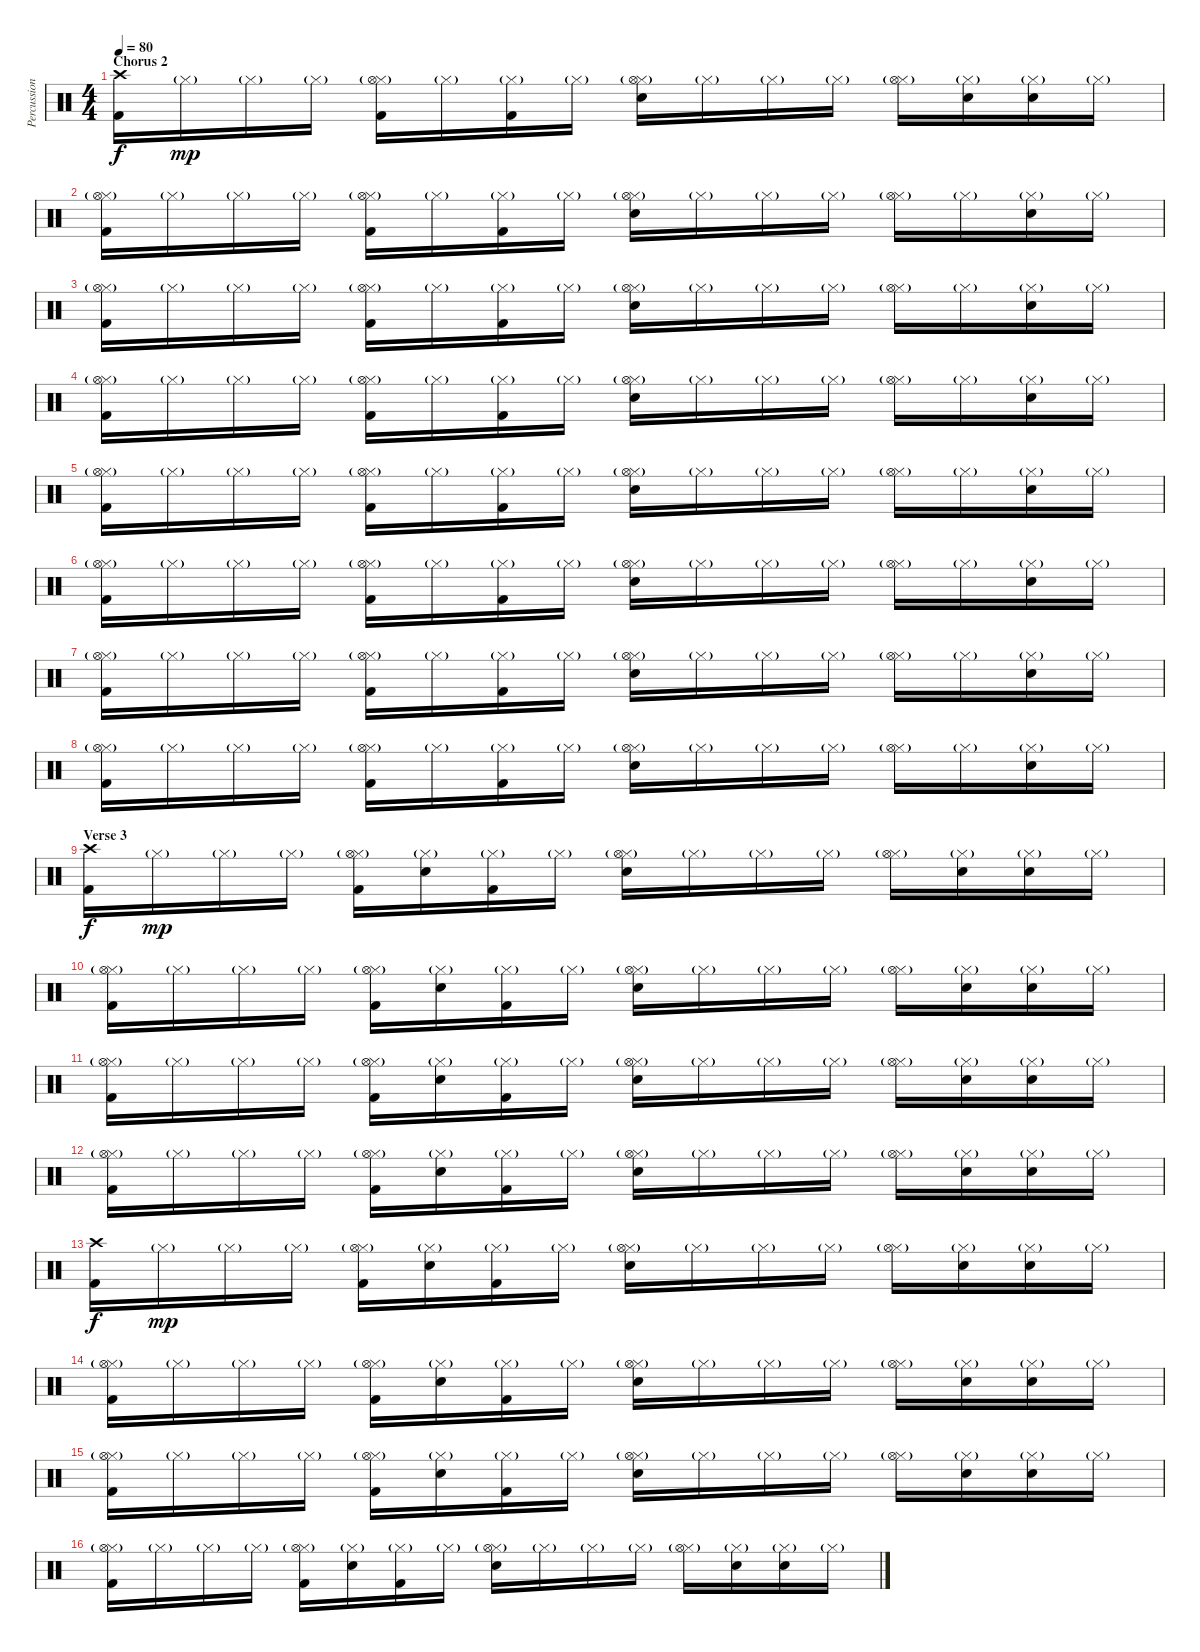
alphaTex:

\track ("Percussions" "Percussion") {instrument percussion}
\staff {score}
\articulation defaults
\ts (4 4)
\section ("" "Chorus 2")
\tempo 80
\clef neutral
\ks c
("Crash high (hit)" "Kick (hit) 2").16{dy f} "Hi-Hat (closed)"{g}.16{dy mp} "Hi-Hat (closed)"{g}.16 "Hi-Hat (closed)"{g}.16 ("Hi-Hat (closed)"{g} "Hi-Hat (open)" "Kick (hit) 2").16 "Hi-Hat (closed)"{g}.16 ("Hi-Hat (closed)"{g} "Kick (hit) 2").16 "Hi-Hat (closed)"{g}.16 ("Hi-Hat (closed)"{g} "Hi-Hat (open)" "Snare (hit) 2").16 "Hi-Hat (closed)"{g}.16 "Hi-Hat (closed)"{g}.16 "Hi-Hat (closed)"{g}.16 ("Hi-Hat (closed)"{g} "Hi-Hat (open)").16 ("Hi-Hat (closed)"{g} "Hand Clap (hit)").16 ("Hi-Hat (closed)"{g} "Snare (hit) 2").16 "Hi-Hat (closed)"{g}.16 |
("Hi-Hat (closed)"{g} "Hi-Hat (open)" "Kick (hit) 2").16 "Hi-Hat (closed)"{g}.16 "Hi-Hat (closed)"{g}.16 "Hi-Hat (closed)"{g}.16 ("Hi-Hat (closed)"{g} "Hi-Hat (open)" "Kick (hit) 2").16 "Hi-Hat (closed)"{g}.16 ("Hi-Hat (closed)"{g} "Kick (hit) 2").16 "Hi-Hat (closed)"{g}.16 ("Hi-Hat (closed)"{g} "Hi-Hat (open)" "Snare (hit) 2").16 "Hi-Hat (closed)"{g}.16 "Hi-Hat (closed)"{g}.16 "Hi-Hat (closed)"{g}.16 ("Hi-Hat (closed)"{g} "Hi-Hat (open)").16 "Hi-Hat (closed)"{g}.16 ("Hi-Hat (closed)"{g} "Snare (hit) 2").16 "Hi-Hat (closed)"{g}.16 |
("Hi-Hat (closed)"{g} "Hi-Hat (open)" "Kick (hit) 2").16 "Hi-Hat (closed)"{g}.16 "Hi-Hat (closed)"{g}.16 "Hi-Hat (closed)"{g}.16 ("Hi-Hat (closed)"{g} "Hi-Hat (open)" "Kick (hit) 2").16 "Hi-Hat (closed)"{g}.16 ("Hi-Hat (closed)"{g} "Kick (hit) 2").16 "Hi-Hat (closed)"{g}.16 ("Hi-Hat (closed)"{g} "Hi-Hat (open)" "Snare (hit) 2").16 "Hi-Hat (closed)"{g}.16 "Hi-Hat (closed)"{g}.16 "Hi-Hat (closed)"{g}.16 ("Hi-Hat (closed)"{g} "Hi-Hat (open)").16 "Hi-Hat (closed)"{g}.16 ("Hi-Hat (closed)"{g} "Snare (hit) 2").16 "Hi-Hat (closed)"{g}.16 |
("Hi-Hat (closed)"{g} "Hi-Hat (open)" "Kick (hit) 2").16 "Hi-Hat (closed)"{g}.16 "Hi-Hat (closed)"{g}.16 "Hi-Hat (closed)"{g}.16 ("Hi-Hat (closed)"{g} "Hi-Hat (open)" "Kick (hit) 2").16 "Hi-Hat (closed)"{g}.16 ("Hi-Hat (closed)"{g} "Kick (hit) 2").16 "Hi-Hat (closed)"{g}.16 ("Hi-Hat (closed)"{g} "Hi-Hat (open)" "Snare (hit) 2").16 "Hi-Hat (closed)"{g}.16 "Hi-Hat (closed)"{g}.16 "Hi-Hat (closed)"{g}.16 ("Hi-Hat (closed)"{g} "Hi-Hat (open)").16 "Hi-Hat (closed)"{g}.16 ("Hi-Hat (closed)"{g} "Snare (hit) 2").16 "Hi-Hat (closed)"{g}.16 |
("Hi-Hat (closed)"{g} "Hi-Hat (open)" "Kick (hit) 2").16 "Hi-Hat (closed)"{g}.16 "Hi-Hat (closed)"{g}.16 "Hi-Hat (closed)"{g}.16 ("Hi-Hat (closed)"{g} "Hi-Hat (open)" "Kick (hit) 2").16 "Hi-Hat (closed)"{g}.16 ("Hi-Hat (closed)"{g} "Kick (hit) 2").16 "Hi-Hat (closed)"{g}.16 ("Hi-Hat (closed)"{g} "Hi-Hat (open)" "Snare (hit) 2").16 "Hi-Hat (closed)"{g}.16 "Hi-Hat (closed)"{g}.16 "Hi-Hat (closed)"{g}.16 ("Hi-Hat (closed)"{g} "Hi-Hat (open)").16 "Hi-Hat (closed)"{g}.16 ("Hi-Hat (closed)"{g} "Snare (hit) 2").16 "Hi-Hat (closed)"{g}.16 |
("Hi-Hat (closed)"{g} "Hi-Hat (open)" "Kick (hit) 2").16 "Hi-Hat (closed)"{g}.16 "Hi-Hat (closed)"{g}.16 "Hi-Hat (closed)"{g}.16 ("Hi-Hat (closed)"{g} "Hi-Hat (open)" "Kick (hit) 2").16 "Hi-Hat (closed)"{g}.16 ("Hi-Hat (closed)"{g} "Kick (hit) 2").16 "Hi-Hat (closed)"{g}.16 ("Hi-Hat (closed)"{g} "Hi-Hat (open)" "Snare (hit) 2").16 "Hi-Hat (closed)"{g}.16 "Hi-Hat (closed)"{g}.16 "Hi-Hat (closed)"{g}.16 ("Hi-Hat (closed)"{g} "Hi-Hat (open)").16 "Hi-Hat (closed)"{g}.16 ("Hi-Hat (closed)"{g} "Snare (hit) 2").16 "Hi-Hat (closed)"{g}.16 |
("Hi-Hat (closed)"{g} "Hi-Hat (open)" "Kick (hit) 2").16 "Hi-Hat (closed)"{g}.16 "Hi-Hat (closed)"{g}.16 "Hi-Hat (closed)"{g}.16 ("Hi-Hat (closed)"{g} "Hi-Hat (open)" "Kick (hit) 2").16 "Hi-Hat (closed)"{g}.16 ("Hi-Hat (closed)"{g} "Kick (hit) 2").16 "Hi-Hat (closed)"{g}.16 ("Hi-Hat (closed)"{g} "Hi-Hat (open)" "Snare (hit) 2").16 "Hi-Hat (closed)"{g}.16 "Hi-Hat (closed)"{g}.16 "Hi-Hat (closed)"{g}.16 ("Hi-Hat (closed)"{g} "Hi-Hat (open)").16 "Hi-Hat (closed)"{g}.16 ("Hi-Hat (closed)"{g} "Snare (hit) 2").16 "Hi-Hat (closed)"{g}.16 |
("Hi-Hat (closed)"{g} "Hi-Hat (open)" "Kick (hit) 2").16 "Hi-Hat (closed)"{g}.16 "Hi-Hat (closed)"{g}.16 "Hi-Hat (closed)"{g}.16 ("Hi-Hat (closed)"{g} "Hi-Hat (open)" "Kick (hit) 2").16 "Hi-Hat (closed)"{g}.16 ("Hi-Hat (closed)"{g} "Kick (hit) 2").16 "Hi-Hat (closed)"{g}.16 ("Hi-Hat (closed)"{g} "Hi-Hat (open)" "Snare (hit) 2").16 "Hi-Hat (closed)"{g}.16 "Hi-Hat (closed)"{g}.16 "Hi-Hat (closed)"{g}.16 ("Hi-Hat (closed)"{g} "Hi-Hat (open)").16 "Hi-Hat (closed)"{g}.16 ("Hi-Hat (closed)"{g} "Snare (hit) 2").16 "Hi-Hat (closed)"{g}.16 |
\section ("" "Verse 3")
("Crash high (hit)" "Kick (hit) 2").16{dy f} "Hi-Hat (closed)"{g}.16{dy mp} "Hi-Hat (closed)"{g}.16 "Hi-Hat (closed)"{g}.16 ("Hi-Hat (closed)"{g} "Hi-Hat (open)" "Kick (hit) 2").16 ("Hi-Hat (closed)"{g} "Hand Clap (hit)").16 ("Hi-Hat (closed)"{g} "Kick (hit) 2").16 "Hi-Hat (closed)"{g}.16 ("Hi-Hat (closed)"{g} "Hi-Hat (open)" "Snare (hit) 2").16 "Hi-Hat (closed)"{g}.16 "Hi-Hat (closed)"{g}.16 "Hi-Hat (closed)"{g}.16 ("Hi-Hat (closed)"{g} "Hi-Hat (open)").16 ("Hi-Hat (closed)"{g} "Hand Clap (hit)").16 ("Hi-Hat (closed)"{g} "Snare (hit) 2").16 "Hi-Hat (closed)"{g}.16 |
("Hi-Hat (closed)"{g} "Hi-Hat (open)" "Kick (hit) 2").16 "Hi-Hat (closed)"{g}.16 "Hi-Hat (closed)"{g}.16 "Hi-Hat (closed)"{g}.16 ("Hi-Hat (closed)"{g} "Hi-Hat (open)" "Kick (hit) 2").16 ("Hi-Hat (closed)"{g} "Hand Clap (hit)").16 ("Hi-Hat (closed)"{g} "Kick (hit) 2").16 "Hi-Hat (closed)"{g}.16 ("Hi-Hat (closed)"{g} "Hi-Hat (open)" "Snare (hit) 2").16 "Hi-Hat (closed)"{g}.16 "Hi-Hat (closed)"{g}.16 "Hi-Hat (closed)"{g}.16 ("Hi-Hat (closed)"{g} "Hi-Hat (open)").16 ("Hi-Hat (closed)"{g} "Hand Clap (hit)").16 ("Hi-Hat (closed)"{g} "Snare (hit) 2").16 "Hi-Hat (closed)"{g}.16 |
("Hi-Hat (closed)"{g} "Hi-Hat (open)" "Kick (hit) 2").16 "Hi-Hat (closed)"{g}.16 "Hi-Hat (closed)"{g}.16 "Hi-Hat (closed)"{g}.16 ("Hi-Hat (closed)"{g} "Hi-Hat (open)" "Kick (hit) 2").16 ("Hi-Hat (closed)"{g} "Hand Clap (hit)").16 ("Hi-Hat (closed)"{g} "Kick (hit) 2").16 "Hi-Hat (closed)"{g}.16 ("Hi-Hat (closed)"{g} "Hi-Hat (open)" "Snare (hit) 2").16 "Hi-Hat (closed)"{g}.16 "Hi-Hat (closed)"{g}.16 "Hi-Hat (closed)"{g}.16 ("Hi-Hat (closed)"{g} "Hi-Hat (open)").16 ("Hi-Hat (closed)"{g} "Hand Clap (hit)").16 ("Hi-Hat (closed)"{g} "Snare (hit) 2").16 "Hi-Hat (closed)"{g}.16 |
("Hi-Hat (closed)"{g} "Hi-Hat (open)" "Kick (hit) 2").16 "Hi-Hat (closed)"{g}.16 "Hi-Hat (closed)"{g}.16 "Hi-Hat (closed)"{g}.16 ("Hi-Hat (closed)"{g} "Hi-Hat (open)" "Kick (hit) 2").16 ("Hi-Hat (closed)"{g} "Hand Clap (hit)").16 ("Hi-Hat (closed)"{g} "Kick (hit) 2").16 "Hi-Hat (closed)"{g}.16 ("Hi-Hat (closed)"{g} "Hi-Hat (open)" "Snare (hit) 2").16 "Hi-Hat (closed)"{g}.16 "Hi-Hat (closed)"{g}.16 "Hi-Hat (closed)"{g}.16 ("Hi-Hat (closed)"{g} "Hi-Hat (open)").16 ("Hi-Hat (closed)"{g} "Hand Clap (hit)").16 ("Hi-Hat (closed)"{g} "Snare (hit) 2").16 "Hi-Hat (closed)"{g}.16 |
("Crash high (hit)" "Kick (hit) 2").16{dy f} "Hi-Hat (closed)"{g}.16{dy mp} "Hi-Hat (closed)"{g}.16 "Hi-Hat (closed)"{g}.16 ("Hi-Hat (closed)"{g} "Hi-Hat (open)" "Kick (hit) 2").16 ("Hi-Hat (closed)"{g} "Hand Clap (hit)").16 ("Hi-Hat (closed)"{g} "Kick (hit) 2").16 "Hi-Hat (closed)"{g}.16 ("Hi-Hat (closed)"{g} "Hi-Hat (open)" "Snare (hit) 2").16 "Hi-Hat (closed)"{g}.16 "Hi-Hat (closed)"{g}.16 "Hi-Hat (closed)"{g}.16 ("Hi-Hat (closed)"{g} "Hi-Hat (open)").16 ("Hi-Hat (closed)"{g} "Hand Clap (hit)").16 ("Hi-Hat (closed)"{g} "Snare (hit) 2").16 "Hi-Hat (closed)"{g}.16 |
("Hi-Hat (closed)"{g} "Hi-Hat (open)" "Kick (hit) 2").16 "Hi-Hat (closed)"{g}.16 "Hi-Hat (closed)"{g}.16 "Hi-Hat (closed)"{g}.16 ("Hi-Hat (closed)"{g} "Hi-Hat (open)" "Kick (hit) 2").16 ("Hi-Hat (closed)"{g} "Hand Clap (hit)").16 ("Hi-Hat (closed)"{g} "Kick (hit) 2").16 "Hi-Hat (closed)"{g}.16 ("Hi-Hat (closed)"{g} "Hi-Hat (open)" "Snare (hit) 2").16 "Hi-Hat (closed)"{g}.16 "Hi-Hat (closed)"{g}.16 "Hi-Hat (closed)"{g}.16 ("Hi-Hat (closed)"{g} "Hi-Hat (open)").16 ("Hi-Hat (closed)"{g} "Hand Clap (hit)").16 ("Hi-Hat (closed)"{g} "Snare (hit) 2").16 "Hi-Hat (closed)"{g}.16 |
("Hi-Hat (closed)"{g} "Hi-Hat (open)" "Kick (hit) 2").16 "Hi-Hat (closed)"{g}.16 "Hi-Hat (closed)"{g}.16 "Hi-Hat (closed)"{g}.16 ("Hi-Hat (closed)"{g} "Hi-Hat (open)" "Kick (hit) 2").16 ("Hi-Hat (closed)"{g} "Hand Clap (hit)").16 ("Hi-Hat (closed)"{g} "Kick (hit) 2").16 "Hi-Hat (closed)"{g}.16 ("Hi-Hat (closed)"{g} "Hi-Hat (open)" "Snare (hit) 2").16 "Hi-Hat (closed)"{g}.16 "Hi-Hat (closed)"{g}.16 "Hi-Hat (closed)"{g}.16 ("Hi-Hat (closed)"{g} "Hi-Hat (open)").16 ("Hi-Hat (closed)"{g} "Hand Clap (hit)").16 ("Hi-Hat (closed)"{g} "Snare (hit) 2").16 "Hi-Hat (closed)"{g}.16 |
("Hi-Hat (closed)"{g} "Hi-Hat (open)" "Kick (hit) 2").16 "Hi-Hat (closed)"{g}.16 "Hi-Hat (closed)"{g}.16 "Hi-Hat (closed)"{g}.16 ("Hi-Hat (closed)"{g} "Hi-Hat (open)" "Kick (hit) 2").16 ("Hi-Hat (closed)"{g} "Hand Clap (hit)").16 ("Hi-Hat (closed)"{g} "Kick (hit) 2").16 "Hi-Hat (closed)"{g}.16 ("Hi-Hat (closed)"{g} "Hi-Hat (open)" "Snare (hit) 2").16 "Hi-Hat (closed)"{g}.16 "Hi-Hat (closed)"{g}.16 "Hi-Hat (closed)"{g}.16 ("Hi-Hat (closed)"{g} "Hi-Hat (open)").16 ("Hi-Hat (closed)"{g} "Hand Clap (hit)").16 ("Hi-Hat (closed)"{g} "Snare (hit) 2").16 "Hi-Hat (closed)"{g}.16
